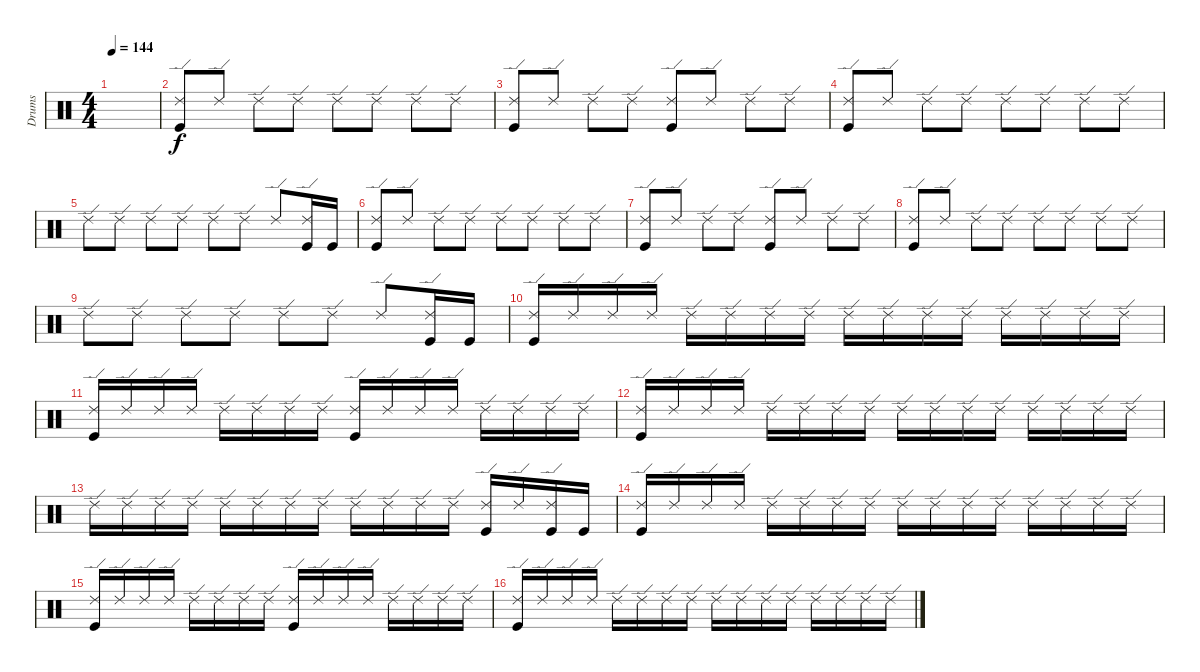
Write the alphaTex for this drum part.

\track ("Drums" "Drums") {instrument percussion}
\staff {score}
\articulation defaults
\ts (4 4)
\tempo 144
\clef neutral
\ks c
|
("Ride (edge) 2" "Kick (hit)").8 "Ride (edge) 2".8 "Ride (edge) 2".8 "Ride (edge) 2".8 "Ride (edge) 2".8 "Ride (edge) 2".8 "Ride (edge) 2".8 "Ride (edge) 2".8 |
("Ride (edge) 2" "Kick (hit)").8 "Ride (edge) 2".8 "Ride (edge) 2".8 "Ride (edge) 2".8 ("Ride (edge) 2" "Kick (hit)").8 "Ride (edge) 2".8 "Ride (edge) 2".8 "Ride (edge) 2".8 |
("Ride (edge) 2" "Kick (hit)").8 "Ride (edge) 2".8 "Ride (edge) 2".8 "Ride (edge) 2".8 "Ride (edge) 2".8 "Ride (edge) 2".8 "Ride (edge) 2".8 "Ride (edge) 2".8 |
"Ride (edge) 2".8 "Ride (edge) 2".8 "Ride (edge) 2".8 "Ride (edge) 2".8 "Ride (edge) 2".8 "Ride (edge) 2".8 "Ride (edge) 2".8 ("Ride (edge) 2" "Kick (hit)").16 "Kick (hit)".16 |
("Ride (edge) 2" "Kick (hit)").8 "Ride (edge) 2".8 "Ride (edge) 2".8 "Ride (edge) 2".8 "Ride (edge) 2".8 "Ride (edge) 2".8 "Ride (edge) 2".8 "Ride (edge) 2".8 |
("Ride (edge) 2" "Kick (hit)").8 "Ride (edge) 2".8 "Ride (edge) 2".8 "Ride (edge) 2".8 ("Ride (edge) 2" "Kick (hit)").8 "Ride (edge) 2".8 "Ride (edge) 2".8 "Ride (edge) 2".8 |
("Ride (edge) 2" "Kick (hit)").8 "Ride (edge) 2".8 "Ride (edge) 2".8 "Ride (edge) 2".8 "Ride (edge) 2".8 "Ride (edge) 2".8 "Ride (edge) 2".8 "Ride (edge) 2".8 |
"Ride (edge) 2".8 "Ride (edge) 2".8 "Ride (edge) 2".8 "Ride (edge) 2".8 "Ride (edge) 2".8 "Ride (edge) 2".8 "Ride (edge) 2".8 ("Ride (edge) 2" "Kick (hit)").16 "Kick (hit)".16 |
("Ride (edge) 2" "Kick (hit)").16 "Ride (edge) 2".16 "Ride (edge) 2".16 "Ride (edge) 2".16 "Ride (edge) 2".16 "Ride (edge) 2".16 "Ride (edge) 2".16 "Ride (edge) 2".16 "Ride (edge) 2".16 "Ride (edge) 2".16 "Ride (edge) 2".16 "Ride (edge) 2".16 "Ride (edge) 2".16 "Ride (edge) 2".16 "Ride (edge) 2".16 "Ride (edge) 2".16 |
("Ride (edge) 2" "Kick (hit)").16 "Ride (edge) 2".16 "Ride (edge) 2".16 "Ride (edge) 2".16 "Ride (edge) 2".16 "Ride (edge) 2".16 "Ride (edge) 2".16 "Ride (edge) 2".16 ("Ride (edge) 2" "Kick (hit)").16 "Ride (edge) 2".16 "Ride (edge) 2".16 "Ride (edge) 2".16 "Ride (edge) 2".16 "Ride (edge) 2".16 "Ride (edge) 2".16 "Ride (edge) 2".16 |
("Ride (edge) 2" "Kick (hit)").16 "Ride (edge) 2".16 "Ride (edge) 2".16 "Ride (edge) 2".16 "Ride (edge) 2".16 "Ride (edge) 2".16 "Ride (edge) 2".16 "Ride (edge) 2".16 "Ride (edge) 2".16 "Ride (edge) 2".16 "Ride (edge) 2".16 "Ride (edge) 2".16 "Ride (edge) 2".16 "Ride (edge) 2".16 "Ride (edge) 2".16 "Ride (edge) 2".16 |
"Ride (edge) 2".16 "Ride (edge) 2".16 "Ride (edge) 2".16 "Ride (edge) 2".16 "Ride (edge) 2".16 "Ride (edge) 2".16 "Ride (edge) 2".16 "Ride (edge) 2".16 "Ride (edge) 2".16 "Ride (edge) 2".16 "Ride (edge) 2".16 "Ride (edge) 2".16 ("Ride (edge) 2" "Kick (hit)").16 "Ride (edge) 2".16 ("Ride (edge) 2" "Kick (hit)").16 "Kick (hit)".16 |
("Ride (edge) 2" "Kick (hit)").16 "Ride (edge) 2".16 "Ride (edge) 2".16 "Ride (edge) 2".16 "Ride (edge) 2".16 "Ride (edge) 2".16 "Ride (edge) 2".16 "Ride (edge) 2".16 "Ride (edge) 2".16 "Ride (edge) 2".16 "Ride (edge) 2".16 "Ride (edge) 2".16 "Ride (edge) 2".16 "Ride (edge) 2".16 "Ride (edge) 2".16 "Ride (edge) 2".16 |
("Ride (edge) 2" "Kick (hit)").16 "Ride (edge) 2".16 "Ride (edge) 2".16 "Ride (edge) 2".16 "Ride (edge) 2".16 "Ride (edge) 2".16 "Ride (edge) 2".16 "Ride (edge) 2".16 ("Ride (edge) 2" "Kick (hit)").16 "Ride (edge) 2".16 "Ride (edge) 2".16 "Ride (edge) 2".16 "Ride (edge) 2".16 "Ride (edge) 2".16 "Ride (edge) 2".16 "Ride (edge) 2".16 |
("Ride (edge) 2" "Kick (hit)").16 "Ride (edge) 2".16 "Ride (edge) 2".16 "Ride (edge) 2".16 "Ride (edge) 2".16 "Ride (edge) 2".16 "Ride (edge) 2".16 "Ride (edge) 2".16 "Ride (edge) 2".16 "Ride (edge) 2".16 "Ride (edge) 2".16 "Ride (edge) 2".16 "Ride (edge) 2".16 "Ride (edge) 2".16 "Ride (edge) 2".16 "Ride (edge) 2".16
